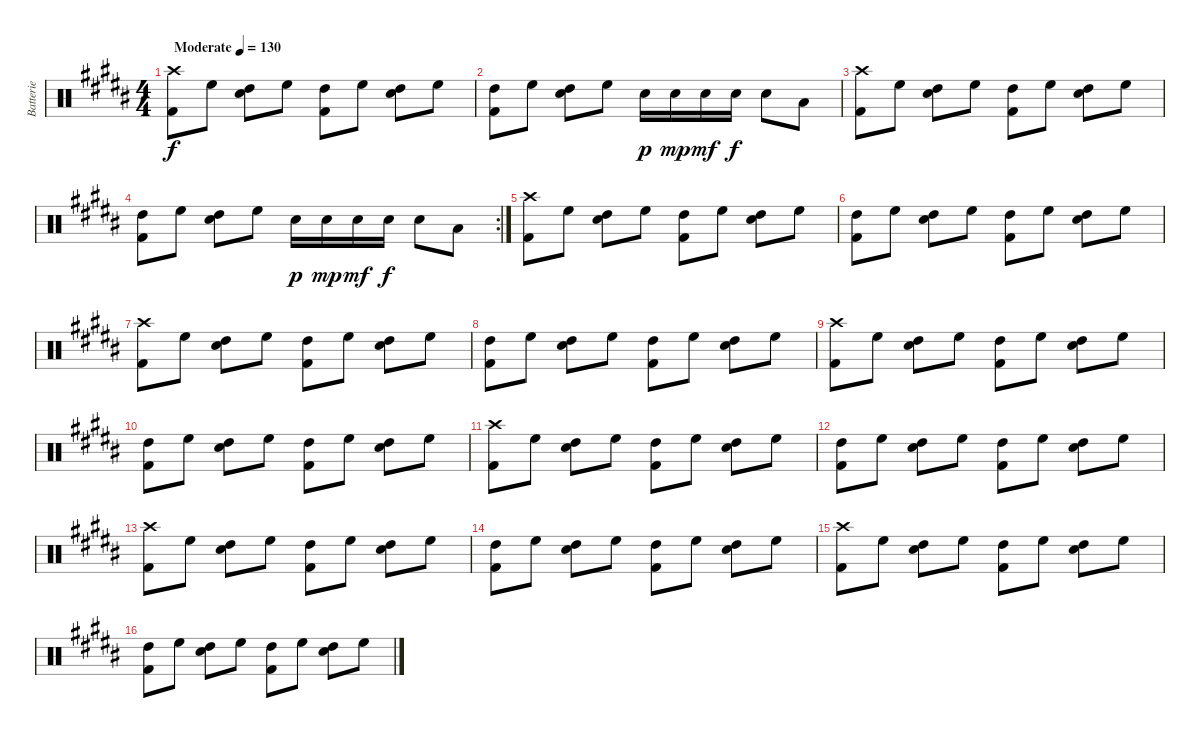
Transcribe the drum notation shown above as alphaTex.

\track ("Batterie" "Batterie") {instrument percussion}
\staff {score}
\articulation defaults
\ts (4 4)
\tempo (130 "Moderate")
\clef neutral
\ks b
("Crash high (hit)" "Kick (hit) 2").8{dy f} "High Floor Tom (hit)".8 ("High Tom (hit)" "Snare (hit) 2").8 "High Floor Tom (hit)".8 ("High Tom (hit)" "Kick (hit) 2").8 "High Floor Tom (hit)".8 ("High Tom (hit)" "Snare (hit) 2").8 "High Floor Tom (hit)".8 |
("High Tom (hit)" "Kick (hit) 2").8 "High Floor Tom (hit)".8 ("High Tom (hit)" "Snare (hit) 2").8 "High Floor Tom (hit)".8 "Snare (hit) 2".16{dy p} "Snare (hit) 2".16{dy mp} "Snare (hit) 2".16{dy mf} "Snare (hit) 2".16{dy f} "Snare (hit) 2".8 "Low Tom (hit)".8 |
("Crash high (hit)" "Kick (hit) 2").8 "High Floor Tom (hit)".8 ("High Tom (hit)" "Snare (hit) 2").8 "High Floor Tom (hit)".8 ("High Tom (hit)" "Kick (hit) 2").8 "High Floor Tom (hit)".8 ("High Tom (hit)" "Snare (hit) 2").8 "High Floor Tom (hit)".8 |
\rc 2
("High Tom (hit)" "Kick (hit) 2").8 "High Floor Tom (hit)".8 ("High Tom (hit)" "Snare (hit) 2").8 "High Floor Tom (hit)".8 "Snare (hit) 2".16{dy p} "Snare (hit) 2".16{dy mp} "Snare (hit) 2".16{dy mf} "Snare (hit) 2".16{dy f} "Snare (hit) 2".8 "Low Tom (hit)".8 |
("Crash high (hit)" "Kick (hit) 2").8 "High Floor Tom (hit)".8 ("High Tom (hit)" "Snare (hit) 2").8 "High Floor Tom (hit)".8 ("High Tom (hit)" "Kick (hit) 2").8 "High Floor Tom (hit)".8 ("High Tom (hit)" "Snare (hit) 2").8 "High Floor Tom (hit)".8 |
("High Tom (hit)" "Kick (hit) 2").8 "High Floor Tom (hit)".8 ("High Tom (hit)" "Snare (hit) 2").8 "High Floor Tom (hit)".8 ("High Tom (hit)" "Kick (hit) 2").8 "High Floor Tom (hit)".8 ("High Tom (hit)" "Snare (hit) 2").8 "High Floor Tom (hit)".8 |
("Crash high (hit)" "Kick (hit) 2").8 "High Floor Tom (hit)".8 ("High Tom (hit)" "Snare (hit) 2").8 "High Floor Tom (hit)".8 ("High Tom (hit)" "Kick (hit) 2").8 "High Floor Tom (hit)".8 ("High Tom (hit)" "Snare (hit) 2").8 "High Floor Tom (hit)".8 |
("High Tom (hit)" "Kick (hit) 2").8 "High Floor Tom (hit)".8 ("High Tom (hit)" "Snare (hit) 2").8 "High Floor Tom (hit)".8 ("High Tom (hit)" "Kick (hit) 2").8 "High Floor Tom (hit)".8 ("High Tom (hit)" "Snare (hit) 2").8 "High Floor Tom (hit)".8 |
("Crash high (hit)" "Kick (hit) 2").8 "High Floor Tom (hit)".8 ("High Tom (hit)" "Snare (hit) 2").8 "High Floor Tom (hit)".8 ("High Tom (hit)" "Kick (hit) 2").8 "High Floor Tom (hit)".8 ("High Tom (hit)" "Snare (hit) 2").8 "High Floor Tom (hit)".8 |
("High Tom (hit)" "Kick (hit) 2").8 "High Floor Tom (hit)".8 ("High Tom (hit)" "Snare (hit) 2").8 "High Floor Tom (hit)".8 ("High Tom (hit)" "Kick (hit) 2").8 "High Floor Tom (hit)".8 ("High Tom (hit)" "Snare (hit) 2").8 "High Floor Tom (hit)".8 |
("Crash high (hit)" "Kick (hit) 2").8 "High Floor Tom (hit)".8 ("High Tom (hit)" "Snare (hit) 2").8 "High Floor Tom (hit)".8 ("High Tom (hit)" "Kick (hit) 2").8 "High Floor Tom (hit)".8 ("High Tom (hit)" "Snare (hit) 2").8 "High Floor Tom (hit)".8 |
("High Tom (hit)" "Kick (hit) 2").8 "High Floor Tom (hit)".8 ("High Tom (hit)" "Snare (hit) 2").8 "High Floor Tom (hit)".8 ("High Tom (hit)" "Kick (hit) 2").8 "High Floor Tom (hit)".8 ("High Tom (hit)" "Snare (hit) 2").8 "High Floor Tom (hit)".8 |
("Crash high (hit)" "Kick (hit) 2").8 "High Floor Tom (hit)".8 ("High Tom (hit)" "Snare (hit) 2").8 "High Floor Tom (hit)".8 ("High Tom (hit)" "Kick (hit) 2").8 "High Floor Tom (hit)".8 ("High Tom (hit)" "Snare (hit) 2").8 "High Floor Tom (hit)".8 |
("High Tom (hit)" "Kick (hit) 2").8 "High Floor Tom (hit)".8 ("High Tom (hit)" "Snare (hit) 2").8 "High Floor Tom (hit)".8 ("High Tom (hit)" "Kick (hit) 2").8 "High Floor Tom (hit)".8 ("High Tom (hit)" "Snare (hit) 2").8 "High Floor Tom (hit)".8 |
("Crash high (hit)" "Kick (hit) 2").8 "High Floor Tom (hit)".8 ("High Tom (hit)" "Snare (hit) 2").8 "High Floor Tom (hit)".8 ("High Tom (hit)" "Kick (hit) 2").8 "High Floor Tom (hit)".8 ("High Tom (hit)" "Snare (hit) 2").8 "High Floor Tom (hit)".8 |
("High Tom (hit)" "Kick (hit) 2").8 "High Floor Tom (hit)".8 ("High Tom (hit)" "Snare (hit) 2").8 "High Floor Tom (hit)".8 ("High Tom (hit)" "Kick (hit) 2").8 "High Floor Tom (hit)".8 ("High Tom (hit)" "Snare (hit) 2").8 "High Floor Tom (hit)".8
